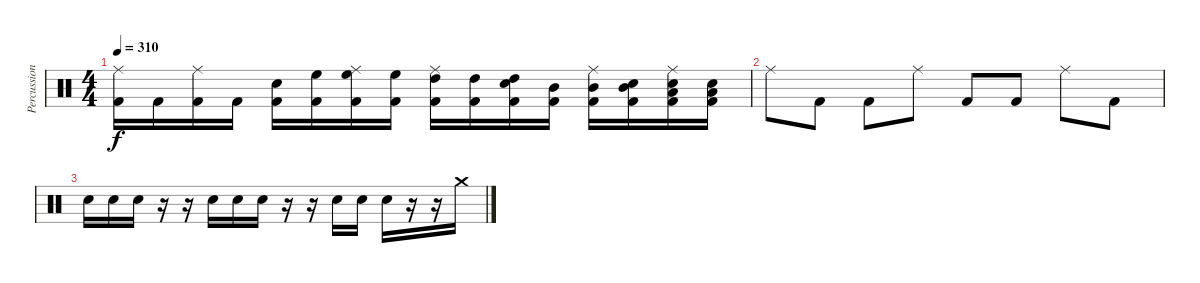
\track ("Percussions" "Percussion") {instrument percussion}
\staff {score}
\articulation defaults
\ts (4 4)
\tempo 310
\clef neutral
\ks c
("Ride (middle)" "Kick (hit) 2").16{dy f} "Kick (hit) 2".16 ("Ride (middle)" "Kick (hit) 2").16 "Kick (hit) 2".16 ("Snare (hit) 2" "Kick (hit) 2").16 ("High Floor Tom (hit)" "Kick (hit) 2").16 ("High Floor Tom (hit)" "Ride (middle)" "Kick (hit) 2").16 ("High Floor Tom (hit)" "Kick (hit) 2").16 ("High Tom (hit)" "Ride (middle)" "Kick (hit) 2").16 ("High Tom (hit)" "Kick (hit) 2").16 ("High Tom (hit)" "Snare (hit) 2" "Kick (hit) 2").16 ("Mid Tom (hit)" "Kick (hit) 2").16 ("Mid Tom (hit)" "Ride (middle)" "Kick (hit) 2").16 ("Mid Tom (hit)" "Snare (hit) 2" "Kick (hit) 2").16 ("Low Tom (hit)" "Snare (hit) 2" "Ride (middle)" "Kick (hit) 2").16 ("Low Tom (hit)" "Snare (hit) 2" "Kick (hit) 2").16 |
"Ride (middle)".8 "Kick (hit) 2".8 "Kick (hit) 2".8 "Ride (middle)".8 "Kick (hit) 2".8 "Kick (hit) 2".8 "Ride (middle)".8 "Kick (hit) 2".8 |
"Snare (hit) 2".16 "Snare (hit) 2".16 "Snare (hit) 2".16 r.16 r.16 "Snare (hit) 2".16 "Snare (hit) 2".16 "Snare (hit) 2".16 r.16 r.16 "Snare (hit) 2".16 "Snare (hit) 2".16 "Snare (hit) 2".16 r.16 r.16 "Crash medium (hit)".16
